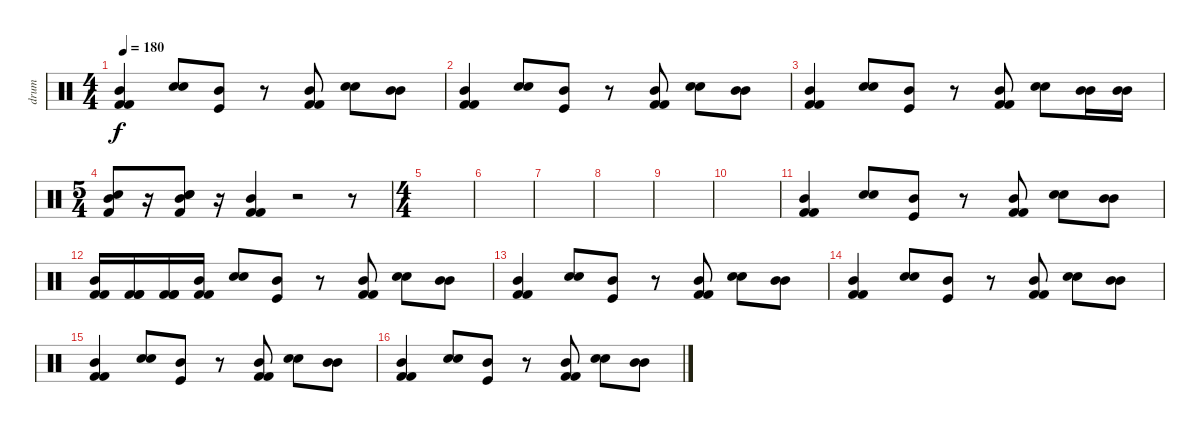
\track ("drum" "drum") {instrument percussion}
\staff {score}
\articulation defaults
\ts (4 4)
\tempo 180
\clef neutral
\ks c
("Kick (hit) 2" "Mid Tom (hit)" "Kick (hit) 2").4{dy f} ("Electric Snare (hit)" "Electric Snare (hit)").8 ("Kick (hit)" "Mid Tom (hit)").8 r.8 ("Mid Tom (hit)" "Kick (hit) 2" "Kick (hit) 2").8 ("Electric Snare (hit)" "Electric Snare (hit)").8 ("Mid Tom (hit)" "Mid Tom (hit)").8 |
("Kick (hit) 2" "Mid Tom (hit)" "Kick (hit) 2").4 ("Electric Snare (hit)" "Electric Snare (hit)").8 ("Kick (hit)" "Mid Tom (hit)").8 r.8 ("Mid Tom (hit)" "Kick (hit) 2" "Kick (hit) 2").8 ("Electric Snare (hit)" "Electric Snare (hit)").8 ("Mid Tom (hit)" "Mid Tom (hit)").8 |
("Kick (hit) 2" "Mid Tom (hit)" "Kick (hit) 2").4 ("Electric Snare (hit)" "Electric Snare (hit)").8 ("Kick (hit)" "Mid Tom (hit)").8 r.8 ("Mid Tom (hit)" "Kick (hit) 2" "Kick (hit) 2").8 ("Electric Snare (hit)" "Electric Snare (hit)").8 ("Mid Tom (hit)" "Mid Tom (hit)").16 ("Mid Tom (hit)" "Mid Tom (hit)").16 |
\ts (5 4)
("Kick (hit) 2" "Mid Tom (hit)" "Electric Snare (hit)").8 r.16 ("Electric Snare (hit)" "Electric Snare (hit)" "Mid Tom (hit)" "Kick (hit) 2").8 r.16 ("Mid Tom (hit)" "Kick (hit) 2" "Kick (hit) 2").4 r.2 r.8 |
\ts (4 4)
|
|
|
|
|
|
("Kick (hit) 2" "Mid Tom (hit)" "Kick (hit) 2").4 ("Electric Snare (hit)" "Electric Snare (hit)").8 ("Kick (hit)" "Mid Tom (hit)").8 r.8 ("Mid Tom (hit)" "Kick (hit) 2" "Kick (hit) 2").8 ("Electric Snare (hit)" "Electric Snare (hit)").8 ("Mid Tom (hit)" "Mid Tom (hit)").8 |
("Kick (hit) 2" "Mid Tom (hit)" "Kick (hit) 2").16 ("Kick (hit) 2" "Kick (hit) 2" "Kick (hit) 2").16 ("Kick (hit) 2" "Kick (hit) 2" "Kick (hit) 2").16 ("Kick (hit) 2" "Mid Tom (hit)" "Kick (hit) 2").16 ("Electric Snare (hit)" "Electric Snare (hit)").8 ("Kick (hit)" "Mid Tom (hit)").8 r.8 ("Mid Tom (hit)" "Kick (hit) 2" "Kick (hit) 2").8 ("Electric Snare (hit)" "Electric Snare (hit)").8 ("Mid Tom (hit)" "Mid Tom (hit)").8 |
("Kick (hit) 2" "Mid Tom (hit)" "Kick (hit) 2").4 ("Electric Snare (hit)" "Electric Snare (hit)").8 ("Kick (hit)" "Mid Tom (hit)").8 r.8 ("Mid Tom (hit)" "Kick (hit) 2" "Kick (hit) 2").8 ("Electric Snare (hit)" "Electric Snare (hit)").8 ("Mid Tom (hit)" "Mid Tom (hit)").8 |
("Kick (hit) 2" "Mid Tom (hit)" "Kick (hit) 2").4 ("Electric Snare (hit)" "Electric Snare (hit)").8 ("Kick (hit)" "Mid Tom (hit)").8 r.8 ("Mid Tom (hit)" "Kick (hit) 2" "Kick (hit) 2").8 ("Electric Snare (hit)" "Electric Snare (hit)").8 ("Mid Tom (hit)" "Mid Tom (hit)").8 |
("Kick (hit) 2" "Mid Tom (hit)" "Kick (hit) 2").4 ("Electric Snare (hit)" "Electric Snare (hit)").8 ("Kick (hit)" "Mid Tom (hit)").8 r.8 ("Mid Tom (hit)" "Kick (hit) 2" "Kick (hit) 2").8 ("Electric Snare (hit)" "Electric Snare (hit)").8 ("Mid Tom (hit)" "Mid Tom (hit)").8 |
("Kick (hit) 2" "Mid Tom (hit)" "Kick (hit) 2").4 ("Electric Snare (hit)" "Electric Snare (hit)").8 ("Kick (hit)" "Mid Tom (hit)").8 r.8 ("Mid Tom (hit)" "Kick (hit) 2" "Kick (hit) 2").8 ("Electric Snare (hit)" "Electric Snare (hit)").8 ("Mid Tom (hit)" "Mid Tom (hit)").8
